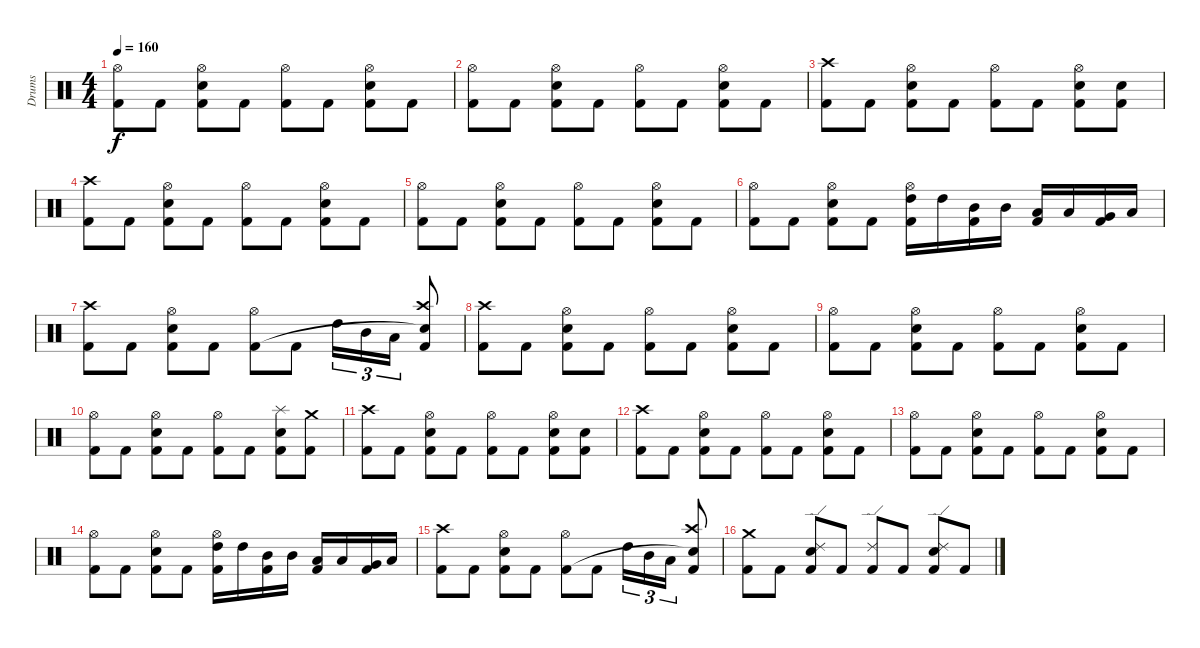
\track ("Drums" "Drums") {instrument percussion}
\staff {score}
\articulation defaults
\ts (4 4)
\tempo 160
\clef neutral
\ks c
("Hi-Hat (open)" "Kick (hit) 2").8{dy f} "Kick (hit) 2".8 ("Hi-Hat (open)" "Electric Snare (hit)" "Kick (hit) 2").8 "Kick (hit) 2".8 ("Hi-Hat (open)" "Kick (hit) 2").8 "Kick (hit) 2".8 ("Hi-Hat (open)" "Electric Snare (hit)" "Kick (hit) 2").8 "Kick (hit) 2".8 |
("Hi-Hat (open)" "Kick (hit) 2").8 "Kick (hit) 2".8 ("Hi-Hat (open)" "Electric Snare (hit)" "Kick (hit) 2").8 "Kick (hit) 2".8 ("Hi-Hat (open)" "Kick (hit) 2").8 "Kick (hit) 2".8 ("Hi-Hat (open)" "Electric Snare (hit)" "Kick (hit) 2").8 "Kick (hit) 2".8 |
("Crash high (hit)" "Kick (hit) 2").8 "Kick (hit) 2".8 ("Hi-Hat (open)" "Electric Snare (hit)" "Kick (hit) 2").8 "Kick (hit) 2".8 ("Hi-Hat (open)" "Kick (hit) 2").8 "Kick (hit) 2".8 ("Hi-Hat (open)" "Electric Snare (hit)" "Kick (hit) 2").8 ("Electric Snare (hit)" "Kick (hit) 2").8 |
("Crash high (hit)" "Kick (hit) 2").8 "Kick (hit) 2".8 ("Hi-Hat (open)" "Electric Snare (hit)" "Kick (hit) 2").8 "Kick (hit) 2".8 ("Hi-Hat (open)" "Kick (hit) 2").8 "Kick (hit) 2".8 ("Hi-Hat (open)" "Electric Snare (hit)" "Kick (hit) 2").8 "Kick (hit) 2".8 |
("Hi-Hat (open)" "Kick (hit) 2").8 "Kick (hit) 2".8 ("Hi-Hat (open)" "Electric Snare (hit)" "Kick (hit) 2").8 "Kick (hit) 2".8 ("Hi-Hat (open)" "Kick (hit) 2").8 "Kick (hit) 2".8 ("Hi-Hat (open)" "Electric Snare (hit)" "Kick (hit) 2").8 "Kick (hit) 2".8 |
("Hi-Hat (open)" "Kick (hit) 2").8 "Kick (hit) 2".8 ("Hi-Hat (open)" "Electric Snare (hit)" "Kick (hit) 2").8 "Kick (hit) 2".8 ("Hi-Hat (open)" "High Tom (hit)" "Kick (hit) 2").16 "High Tom (hit)".16 ("Mid Tom (hit)" "Kick (hit) 2").16 "Mid Tom (hit)".16 ("Low Tom (hit)" "Kick (hit) 2").16 "Low Tom (hit)".16 ("Very Low Tom (hit)" "Kick (hit) 2").16 "Low Floor Tom (hit)".16 |
("Crash high (hit)" "Kick (hit) 2").8 "Kick (hit) 2".8 ("Hi-Hat (open)" "Electric Snare (hit)" "Kick (hit) 2").8 "Kick (hit) 2".8 ("Hi-Hat (open)" "Kick (hit) 2").8 "Kick (hit) 2".8 "High Tom (hit)".16{tu (3 2)} "Mid Tom (hit)".16{tu (3 2)} "Low Tom (hit)".16{tu (3 2)} ("Crash high (hit)" "Snare (hit)"{t} "Kick (hit) 2").8 |
("Crash high (hit)" "Kick (hit) 2").8 "Kick (hit) 2".8 ("Hi-Hat (open)" "Electric Snare (hit)" "Kick (hit) 2").8 "Kick (hit) 2".8 ("Hi-Hat (open)" "Kick (hit) 2").8 "Kick (hit) 2".8 ("Hi-Hat (open)" "Electric Snare (hit)" "Kick (hit) 2").8 "Kick (hit) 2".8 |
("Hi-Hat (open)" "Kick (hit) 2").8 "Kick (hit) 2".8 ("Hi-Hat (open)" "Electric Snare (hit)" "Kick (hit) 2").8 "Kick (hit) 2".8 ("Hi-Hat (open)" "Kick (hit) 2").8 "Kick (hit) 2".8 ("Hi-Hat (open)" "Electric Snare (hit)" "Kick (hit) 2").8 "Kick (hit) 2".8 |
("Hi-Hat (open)" "Kick (hit) 2").8 "Kick (hit) 2".8 ("Hi-Hat (open)" "Electric Snare (hit)" "Kick (hit) 2").8 "Kick (hit) 2".8 ("Hi-Hat (open)" "Kick (hit) 2").8 "Kick (hit) 2".8 ("Splash (hit)" "Electric Snare (hit)" "Kick (hit) 2").8 ("Crash medium (hit)" "Kick (hit) 2").8 |
("Crash high (hit)" "Kick (hit) 2").8 "Kick (hit) 2".8 ("Hi-Hat (open)" "Electric Snare (hit)" "Kick (hit) 2").8 "Kick (hit) 2".8 ("Hi-Hat (open)" "Kick (hit) 2").8 "Kick (hit) 2".8 ("Hi-Hat (open)" "Electric Snare (hit)" "Kick (hit) 2").8 ("Electric Snare (hit)" "Kick (hit) 2").8 |
("Crash high (hit)" "Kick (hit) 2").8 "Kick (hit) 2".8 ("Hi-Hat (open)" "Electric Snare (hit)" "Kick (hit) 2").8 "Kick (hit) 2".8 ("Hi-Hat (open)" "Kick (hit) 2").8 "Kick (hit) 2".8 ("Hi-Hat (open)" "Electric Snare (hit)" "Kick (hit) 2").8 "Kick (hit) 2".8 |
("Hi-Hat (open)" "Kick (hit) 2").8 "Kick (hit) 2".8 ("Hi-Hat (open)" "Electric Snare (hit)" "Kick (hit) 2").8 "Kick (hit) 2".8 ("Hi-Hat (open)" "Kick (hit) 2").8 "Kick (hit) 2".8 ("Hi-Hat (open)" "Electric Snare (hit)" "Kick (hit) 2").8 "Kick (hit) 2".8 |
("Hi-Hat (open)" "Kick (hit) 2").8 "Kick (hit) 2".8 ("Hi-Hat (open)" "Electric Snare (hit)" "Kick (hit) 2").8 "Kick (hit) 2".8 ("Hi-Hat (open)" "High Tom (hit)" "Kick (hit) 2").16 "High Tom (hit)".16 ("Mid Tom (hit)" "Kick (hit) 2").16 "Mid Tom (hit)".16 ("Low Tom (hit)" "Kick (hit) 2").16 "Low Tom (hit)".16 ("Very Low Tom (hit)" "Kick (hit) 2").16 "Low Floor Tom (hit)".16 |
("Crash high (hit)" "Kick (hit) 2").8 "Kick (hit) 2".8 ("Hi-Hat (open)" "Electric Snare (hit)" "Kick (hit) 2").8 "Kick (hit) 2".8 ("Hi-Hat (open)" "Kick (hit) 2").8 "Kick (hit) 2".8 "High Tom (hit)".16{tu (3 2)} "Mid Tom (hit)".16{tu (3 2)} "Low Tom (hit)".16{tu (3 2)} ("Crash high (hit)" "Snare (hit)"{t} "Kick (hit) 2").8 |
("Crash medium (hit)" "Kick (hit) 2").8 "Kick (hit) 2".8 ("Ride (edge) 2" "Electric Snare (hit)" "Kick (hit) 2").8 "Kick (hit) 2".8 ("Ride (edge) 2" "Kick (hit) 2").8 "Kick (hit) 2".8 ("Ride (edge) 2" "Electric Snare (hit)" "Kick (hit) 2").8 "Kick (hit) 2".8
